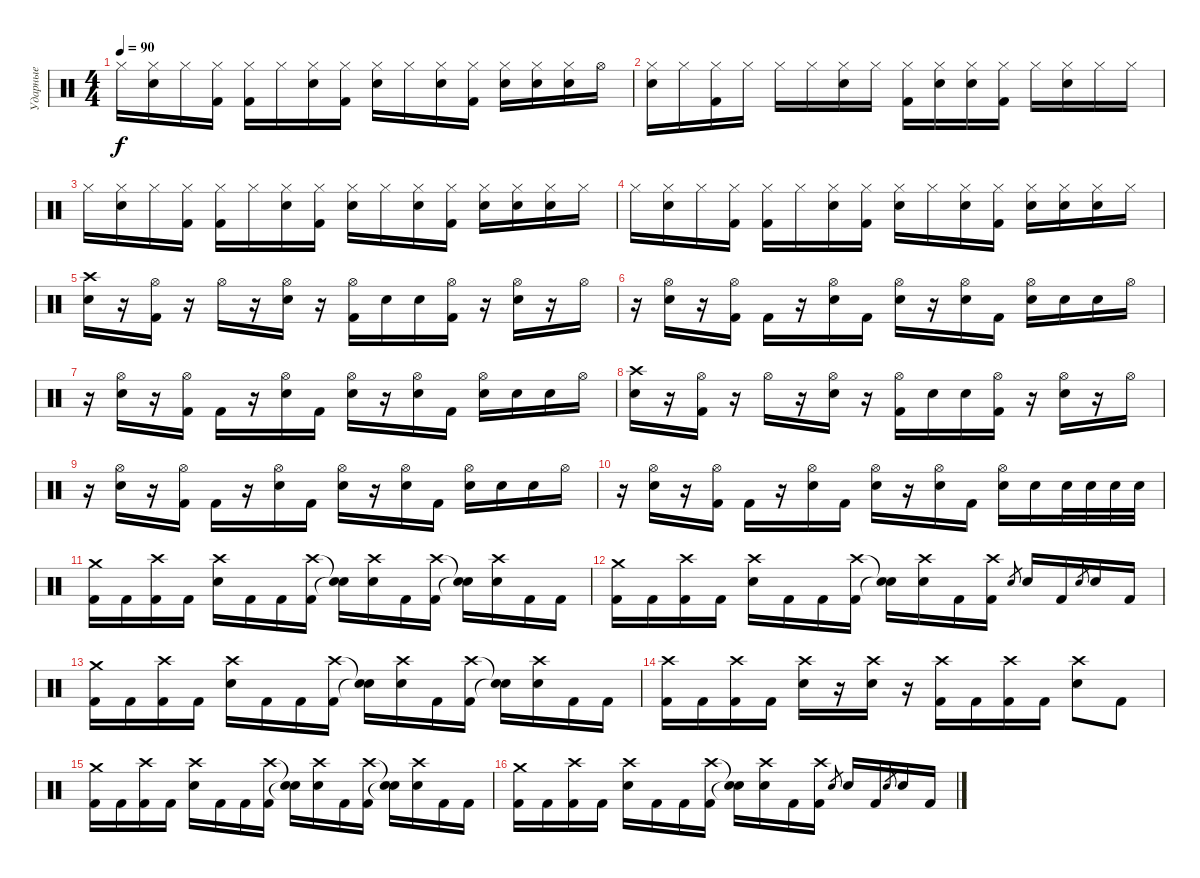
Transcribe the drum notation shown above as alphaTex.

\track ("Ударные" "Ударные") {instrument percussion}
\staff {score}
\articulation defaults
\ts (4 4)
\tempo 90
\clef neutral
\ks c "Hi-Hat (closed)".16{dy f}
("Hi-Hat (closed)" "Electric Snare (hit)").16 "Hi-Hat (closed)".16 ("Hi-Hat (closed)" "Kick (hit) 2").16 ("Hi-Hat (closed)" "Kick (hit) 2").16 "Hi-Hat (closed)".16 ("Hi-Hat (closed)" "Electric Snare (hit)").16 ("Hi-Hat (closed)" "Kick (hit) 2").16 ("Hi-Hat (closed)" "Electric Snare (hit)").16 "Hi-Hat (closed)".16 ("Hi-Hat (closed)" "Electric Snare (hit)").16 ("Hi-Hat (closed)" "Kick (hit) 2").16 ("Hi-Hat (closed)" "Electric Snare (hit)").16 ("Hi-Hat (closed)" "Electric Snare (hit)").16 ("Hi-Hat (closed)" "Electric Snare (hit)").16 "Hi-Hat (open)".16 |
("Hi-Hat (closed)" "Electric Snare (hit)").16 "Hi-Hat (closed)".16 ("Hi-Hat (closed)" "Kick (hit) 2").16 "Hi-Hat (closed)".16 "Hi-Hat (closed)".16 "Hi-Hat (closed)".16 ("Hi-Hat (closed)" "Electric Snare (hit)").16 "Hi-Hat (closed)".16 ("Hi-Hat (closed)" "Kick (hit) 2").16 ("Hi-Hat (closed)" "Electric Snare (hit)").16 ("Hi-Hat (closed)" "Electric Snare (hit)").16 ("Hi-Hat (closed)" "Kick (hit) 2").16 "Hi-Hat (closed)".16 ("Hi-Hat (closed)" "Electric Snare (hit)").16 "Hi-Hat (closed)".16 "Hi-Hat (closed)".16 |
"Hi-Hat (closed)".16 ("Hi-Hat (closed)" "Electric Snare (hit)").16 "Hi-Hat (closed)".16 ("Hi-Hat (closed)" "Kick (hit) 2").16 ("Hi-Hat (closed)" "Kick (hit) 2").16 "Hi-Hat (closed)".16 ("Hi-Hat (closed)" "Electric Snare (hit)").16 ("Hi-Hat (closed)" "Kick (hit) 2").16 ("Hi-Hat (closed)" "Electric Snare (hit)").16 "Hi-Hat (closed)".16 ("Hi-Hat (closed)" "Electric Snare (hit)").16 ("Hi-Hat (closed)" "Kick (hit) 2").16 ("Hi-Hat (closed)" "Electric Snare (hit)").16 ("Hi-Hat (closed)" "Electric Snare (hit)").16 ("Hi-Hat (closed)" "Electric Snare (hit)").16 "Hi-Hat (closed)".16 |
"Hi-Hat (closed)".16 ("Hi-Hat (closed)" "Electric Snare (hit)").16 "Hi-Hat (closed)".16 ("Hi-Hat (closed)" "Kick (hit) 2").16 ("Hi-Hat (closed)" "Kick (hit) 2").16 "Hi-Hat (closed)".16 ("Hi-Hat (closed)" "Electric Snare (hit)").16 ("Hi-Hat (closed)" "Kick (hit) 2").16 ("Hi-Hat (closed)" "Electric Snare (hit)").16 "Hi-Hat (closed)".16 ("Hi-Hat (closed)" "Electric Snare (hit)").16 ("Hi-Hat (closed)" "Kick (hit) 2").16 ("Hi-Hat (closed)" "Electric Snare (hit)").16 ("Hi-Hat (closed)" "Electric Snare (hit)").16 ("Hi-Hat (closed)" "Electric Snare (hit)").16 "Hi-Hat (closed)".16 |
("Crash high (hit)" "Electric Snare (hit)").16 r.16 ("Hi-Hat (open)" "Kick (hit) 2").16 r.16 "Hi-Hat (open)".16 r.16 ("Hi-Hat (open)" "Electric Snare (hit)").16 r.16 ("Hi-Hat (open)" "Kick (hit) 2").16 "Electric Snare (hit)".16 "Electric Snare (hit)".16 ("Hi-Hat (open)" "Kick (hit) 2").16 r.16 ("Hi-Hat (open)" "Electric Snare (hit)").16 r.16 "Hi-Hat (open)".16 |
r.16 ("Hi-Hat (open)" "Electric Snare (hit)").16 r.16 ("Hi-Hat (open)" "Kick (hit) 2").16 "Kick (hit) 2".16 r.16 ("Hi-Hat (open)" "Electric Snare (hit)").16 "Kick (hit) 2".16 ("Hi-Hat (open)" "Electric Snare (hit)").16 r.16 ("Hi-Hat (open)" "Electric Snare (hit)").16 "Kick (hit) 2".16 ("Hi-Hat (open)" "Electric Snare (hit)").16 "Electric Snare (hit)".16 "Electric Snare (hit)".16 "Hi-Hat (open)".16 |
r.16 ("Hi-Hat (open)" "Electric Snare (hit)").16 r.16 ("Hi-Hat (open)" "Kick (hit) 2").16 "Kick (hit) 2".16 r.16 ("Hi-Hat (open)" "Electric Snare (hit)").16 "Kick (hit) 2".16 ("Hi-Hat (open)" "Electric Snare (hit)").16 r.16 ("Hi-Hat (open)" "Electric Snare (hit)").16 "Kick (hit) 2".16 ("Hi-Hat (open)" "Electric Snare (hit)").16 "Electric Snare (hit)".16 "Electric Snare (hit)".16 "Hi-Hat (open)".16 |
("Crash high (hit)" "Electric Snare (hit)").16 r.16 ("Hi-Hat (open)" "Kick (hit) 2").16 r.16 "Hi-Hat (open)".16 r.16 ("Hi-Hat (open)" "Electric Snare (hit)").16 r.16 ("Hi-Hat (open)" "Kick (hit) 2").16 "Electric Snare (hit)".16 "Electric Snare (hit)".16 ("Hi-Hat (open)" "Kick (hit) 2").16 r.16 ("Hi-Hat (open)" "Electric Snare (hit)").16 r.16 "Hi-Hat (open)".16 |
r.16 ("Hi-Hat (open)" "Electric Snare (hit)").16 r.16 ("Hi-Hat (open)" "Kick (hit) 2").16 "Kick (hit) 2".16 r.16 ("Hi-Hat (open)" "Electric Snare (hit)").16 "Kick (hit) 2".16 ("Hi-Hat (open)" "Electric Snare (hit)").16 r.16 ("Hi-Hat (open)" "Electric Snare (hit)").16 "Kick (hit) 2".16 ("Hi-Hat (open)" "Electric Snare (hit)").16 "Electric Snare (hit)".16 "Electric Snare (hit)".16 "Hi-Hat (open)".16 |
r.16 ("Hi-Hat (open)" "Electric Snare (hit)").16 r.16 ("Hi-Hat (open)" "Kick (hit) 2").16 "Kick (hit) 2".16 r.16 ("Hi-Hat (open)" "Electric Snare (hit)").16 "Kick (hit) 2".16 ("Hi-Hat (open)" "Electric Snare (hit)").16 r.16 ("Hi-Hat (open)" "Electric Snare (hit)").16 "Kick (hit) 2".16 ("Hi-Hat (open)" "Electric Snare (hit)").16 "Electric Snare (hit)".16 "Electric Snare (hit)".32 "Electric Snare (hit)".32 "Electric Snare (hit)".32 "Electric Snare (hit)".32 |
("Crash medium (hit)" "Kick (hit) 2").16 "Kick (hit) 2".16 ("Crash high (hit)" "Kick (hit) 2").16 "Kick (hit) 2".16 ("Crash high (hit)" "Electric Snare (hit)").16 "Kick (hit) 2".16 "Kick (hit) 2".16 ("Crash high (hit)" "Kick (hit) 2").16 ("Snare (hit)"{t} "Snare (hit)"{t}).16 ("Crash high (hit)" "Electric Snare (hit)").16 "Kick (hit) 2".16 ("Crash high (hit)" "Kick (hit) 2").16 ("Snare (hit)"{t} "Snare (hit)"{t}).16 ("Crash high (hit)" "Electric Snare (hit)").16 "Kick (hit) 2".16 "Kick (hit) 2".16 |
("Crash medium (hit)" "Kick (hit) 2").16 "Kick (hit) 2".16 ("Crash high (hit)" "Kick (hit) 2").16 "Kick (hit) 2".16 ("Crash high (hit)" "Electric Snare (hit)").16 "Kick (hit) 2".16 "Kick (hit) 2".16 ("Crash high (hit)" "Kick (hit) 2").16 ("Snare (hit)"{t} "Snare (hit)"{t}).16 ("Crash high (hit)" "Electric Snare (hit)").16 "Kick (hit) 2".16 ("Crash high (hit)" "Kick (hit) 2").16 "Electric Snare (hit)".8{gr} "Electric Snare (hit)".16 "Kick (hit) 2".16 "Electric Snare (hit)".8{gr} "Electric Snare (hit)".16 "Kick (hit) 2".16 |
("Crash medium (hit)" "Kick (hit) 2").16 "Kick (hit) 2".16 ("Crash high (hit)" "Kick (hit) 2").16 "Kick (hit) 2".16 ("Crash high (hit)" "Electric Snare (hit)").16 "Kick (hit) 2".16 "Kick (hit) 2".16 ("Crash high (hit)" "Kick (hit) 2").16 ("Snare (hit)"{t} "Snare (hit)"{t}).16 ("Crash high (hit)" "Electric Snare (hit)").16 "Kick (hit) 2".16 ("Crash high (hit)" "Kick (hit) 2").16 ("Snare (hit)"{t} "Snare (hit)"{t}).16 ("Crash high (hit)" "Electric Snare (hit)").16 "Kick (hit) 2".16 "Kick (hit) 2".16 |
("Crash high (hit)" "Kick (hit) 2").16 "Kick (hit) 2".16 ("Crash high (hit)" "Kick (hit) 2").16 "Kick (hit) 2".16 ("Crash high (hit)" "Electric Snare (hit)").16 r.16 ("Crash high (hit)" "Electric Snare (hit)").16 r.16 ("Crash high (hit)" "Kick (hit) 2").16 "Kick (hit) 2".16 ("Crash high (hit)" "Kick (hit) 2").16 "Kick (hit) 2".16 ("Crash high (hit)" "Electric Snare (hit)").8 "Kick (hit) 2".8 |
("Crash medium (hit)" "Kick (hit) 2").16 "Kick (hit) 2".16 ("Crash high (hit)" "Kick (hit) 2").16 "Kick (hit) 2".16 ("Crash high (hit)" "Electric Snare (hit)").16 "Kick (hit) 2".16 "Kick (hit) 2".16 ("Crash high (hit)" "Kick (hit) 2").16 ("Snare (hit)"{t} "Snare (hit)"{t}).16 ("Crash high (hit)" "Electric Snare (hit)").16 "Kick (hit) 2".16 ("Crash high (hit)" "Kick (hit) 2").16 ("Snare (hit)"{t} "Snare (hit)"{t}).16 ("Crash high (hit)" "Electric Snare (hit)").16 "Kick (hit) 2".16 "Kick (hit) 2".16 |
("Crash medium (hit)" "Kick (hit) 2").16 "Kick (hit) 2".16 ("Crash high (hit)" "Kick (hit) 2").16 "Kick (hit) 2".16 ("Crash high (hit)" "Electric Snare (hit)").16 "Kick (hit) 2".16 "Kick (hit) 2".16 ("Crash high (hit)" "Kick (hit) 2").16 ("Snare (hit)"{t} "Snare (hit)"{t}).16 ("Crash high (hit)" "Electric Snare (hit)").16 "Kick (hit) 2".16 ("Crash high (hit)" "Kick (hit) 2").16 "Electric Snare (hit)".8{gr} "Electric Snare (hit)".16 "Kick (hit) 2".16 "Electric Snare (hit)".8{gr} "Electric Snare (hit)".16 "Kick (hit) 2".16
